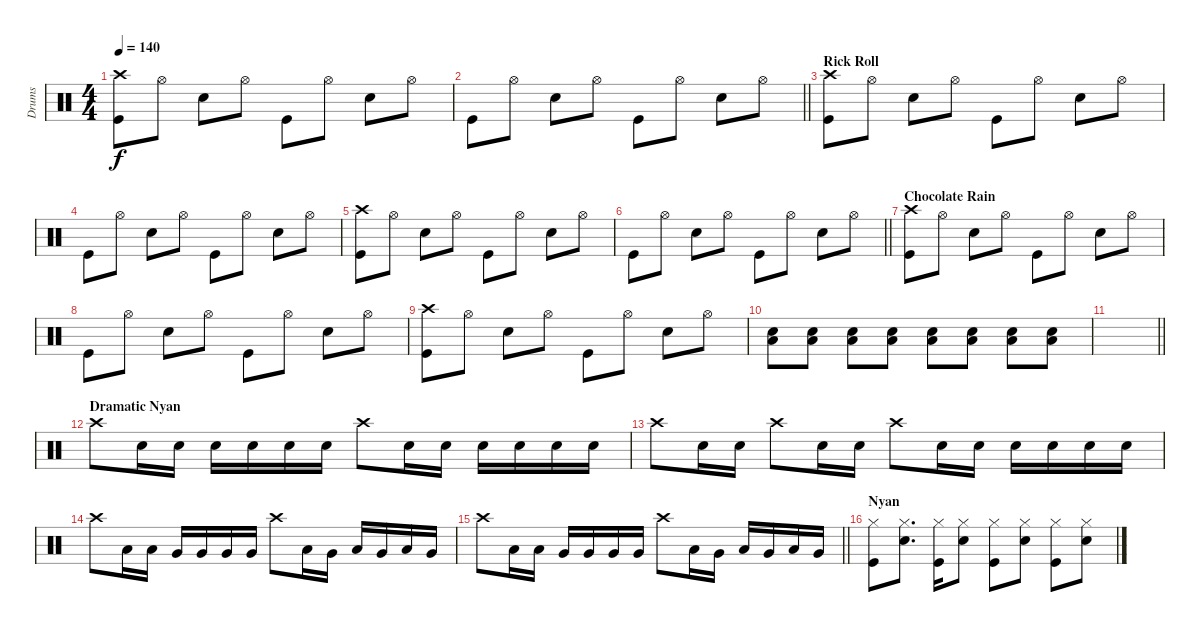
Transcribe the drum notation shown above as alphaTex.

\track ("Drums" "Drums") {instrument percussion}
\staff {score}
\articulation defaults
\ts (4 4)
\tempo 140
\clef neutral
\ks c
("Crash high (hit)" "Kick (hit)").8{dy f} "Hi-Hat (open)".8 "Electric Snare (hit)".8 "Hi-Hat (open)".8 "Kick (hit)".8 "Hi-Hat (open)".8 "Electric Snare (hit)".8 "Hi-Hat (open)".8 |
\barLineRight lightlight "Kick (hit)".8 "Hi-Hat (open)".8 "Electric Snare (hit)".8 "Hi-Hat (open)".8 "Kick (hit)".8 "Hi-Hat (open)".8 "Electric Snare (hit)".8 "Hi-Hat (open)".8
|
\section ("" "Rick Roll")
("Crash high (hit)" "Kick (hit)").8 "Hi-Hat (open)".8 "Electric Snare (hit)".8 "Hi-Hat (open)".8 "Kick (hit)".8 "Hi-Hat (open)".8 "Electric Snare (hit)".8 "Hi-Hat (open)".8 |
"Kick (hit)".8 "Hi-Hat (open)".8 "Electric Snare (hit)".8 "Hi-Hat (open)".8 "Kick (hit)".8 "Hi-Hat (open)".8 "Electric Snare (hit)".8 "Hi-Hat (open)".8 |
("Crash high (hit)" "Kick (hit)").8 "Hi-Hat (open)".8 "Electric Snare (hit)".8 "Hi-Hat (open)".8 "Kick (hit)".8 "Hi-Hat (open)".8 "Electric Snare (hit)".8 "Hi-Hat (open)".8 |
\barLineRight lightlight "Kick (hit)".8 "Hi-Hat (open)".8 "Electric Snare (hit)".8 "Hi-Hat (open)".8 "Kick (hit)".8 "Hi-Hat (open)".8 "Electric Snare (hit)".8 "Hi-Hat (open)".8
|
\section ("" "Chocolate Rain")
("Crash high (hit)" "Kick (hit)").8 "Hi-Hat (open)".8 "Electric Snare (hit)".8 "Hi-Hat (open)".8 "Kick (hit)".8 "Hi-Hat (open)".8 "Electric Snare (hit)".8 "Hi-Hat (open)".8 |
"Kick (hit)".8 "Hi-Hat (open)".8 "Electric Snare (hit)".8 "Hi-Hat (open)".8 "Kick (hit)".8 "Hi-Hat (open)".8 "Electric Snare (hit)".8 "Hi-Hat (open)".8 |
("Crash high (hit)" "Kick (hit)").8 "Hi-Hat (open)".8 "Electric Snare (hit)".8 "Hi-Hat (open)".8 "Kick (hit)".8 "Hi-Hat (open)".8 "Electric Snare (hit)".8 "Hi-Hat (open)".8 |
("Electric Snare (hit)" "Low Tom (hit)").8 ("Electric Snare (hit)" "Low Tom (hit)").8 ("Electric Snare (hit)" "Low Tom (hit)").8 ("Electric Snare (hit)" "Low Tom (hit)").8 ("Electric Snare (hit)" "Low Tom (hit)").8 ("Electric Snare (hit)" "Low Tom (hit)").8 ("Electric Snare (hit)" "Low Tom (hit)").8 ("Electric Snare (hit)" "Low Tom (hit)").8 |
\barLineRight lightlight
|
\section ("" "Dramatic Nyan")
"Crash high (hit)".8 "Electric Snare (hit)".16 "Electric Snare (hit)".16 "Electric Snare (hit)".16 "Electric Snare (hit)".16 "Electric Snare (hit)".16 "Electric Snare (hit)".16 "Crash high (hit)".8 "Electric Snare (hit)".16 "Electric Snare (hit)".16 "Electric Snare (hit)".16 "Electric Snare (hit)".16 "Electric Snare (hit)".16 "Electric Snare (hit)".16 |
"Crash high (hit)".8 "Electric Snare (hit)".16 "Electric Snare (hit)".16 "Crash high (hit)".8 "Electric Snare (hit)".16 "Electric Snare (hit)".16 "Crash high (hit)".8 "Electric Snare (hit)".16 "Electric Snare (hit)".16 "Electric Snare (hit)".16 "Electric Snare (hit)".16 "Electric Snare (hit)".16 "Electric Snare (hit)".16 |
"Crash high (hit)".8 "Low Tom (hit)".16 "Low Tom (hit)".16 "Very Low Tom (hit)".16 "Very Low Tom (hit)".16 "Very Low Tom (hit)".16 "Very Low Tom (hit)".16 "Crash high (hit)".8 "Low Tom (hit)".16 "Very Low Tom (hit)".16 "Low Tom (hit)".16 "Very Low Tom (hit)".16 "Low Tom (hit)".16 "Very Low Tom (hit)".16 |
\barLineRight lightlight "Crash high (hit)".8 "Low Tom (hit)".16 "Low Tom (hit)".16 "Very Low Tom (hit)".16 "Very Low Tom (hit)".16 "Very Low Tom (hit)".16 "Very Low Tom (hit)".16 "Crash high (hit)".8 "Low Tom (hit)".16 "Very Low Tom (hit)".16 "Low Tom (hit)".16 "Very Low Tom (hit)".16 "Low Tom (hit)".16 "Very Low Tom (hit)".16
|
\section ("" "Nyan")
("Kick (hit)" "Hi-Hat (closed)").8 ("Electric Snare (hit)" "Hi-Hat (closed)").8{d} ("Kick (hit)" "Hi-Hat (closed)").16 ("Electric Snare (hit)" "Hi-Hat (closed)").8 ("Kick (hit)" "Hi-Hat (closed)").8 ("Electric Snare (hit)" "Hi-Hat (closed)").8 ("Kick (hit)" "Hi-Hat (closed)").8 ("Electric Snare (hit)" "Hi-Hat (closed)").8
